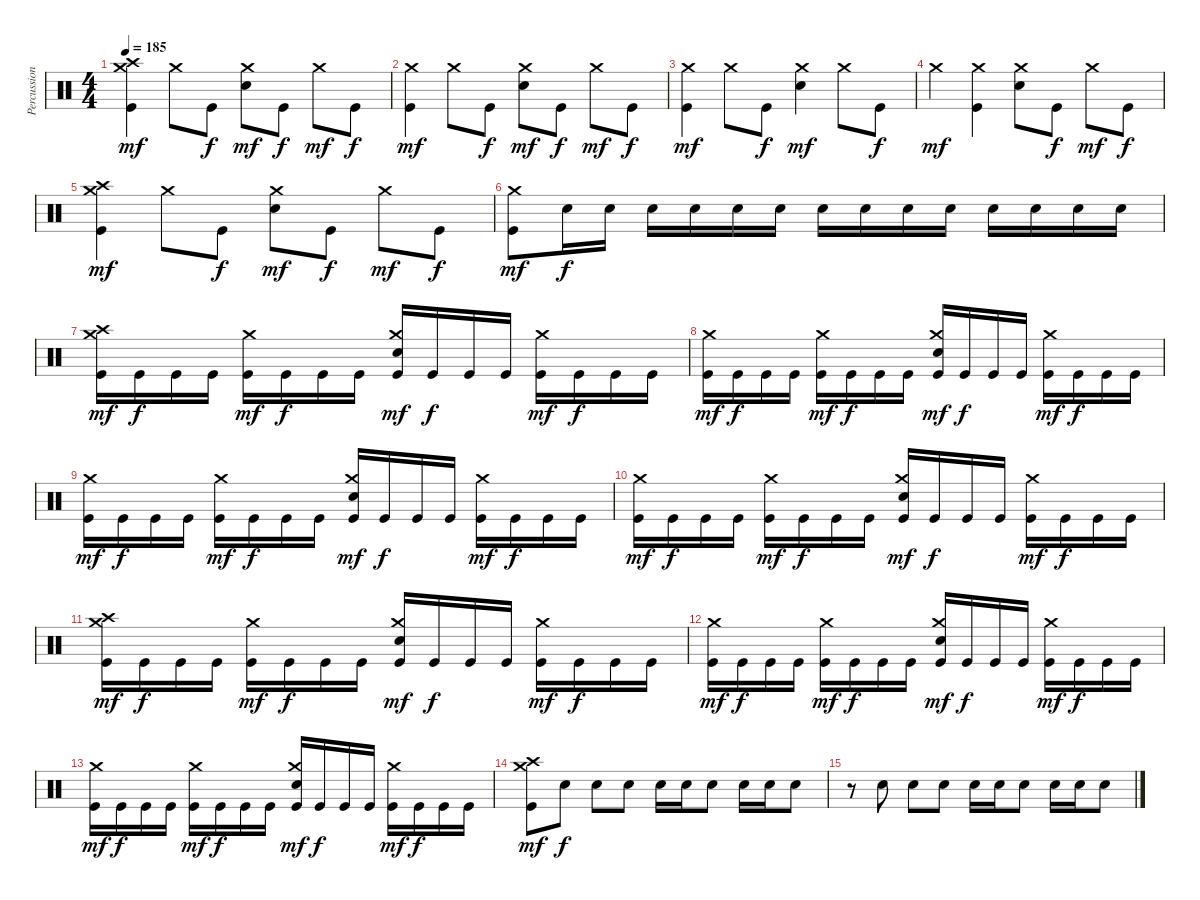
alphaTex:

\track ("Percussions" "Percussion") {instrument percussion}
\staff {score}
\articulation defaults
\ts (4 4)
\tempo 185
\clef neutral
\ks c
("Kick (hit)" "Crash medium (hit)" "Crash high (hit)").4{dy mf} "Crash medium (hit)".8 "Kick (hit)".8{dy f} ("Electric Snare (hit)" "Crash medium (hit)").8{dy mf} "Kick (hit)".8{dy f} "Crash medium (hit)".8{dy mf} "Kick (hit)".8{dy f} |
("Kick (hit)" "Crash medium (hit)").4{dy mf} "Crash medium (hit)".8 "Kick (hit)".8{dy f} ("Electric Snare (hit)" "Crash medium (hit)").8{dy mf} "Kick (hit)".8{dy f} "Crash medium (hit)".8{dy mf} "Kick (hit)".8{dy f} |
("Kick (hit)" "Crash medium (hit)").4{dy mf} "Crash medium (hit)".8 "Kick (hit)".8{dy f} ("Electric Snare (hit)" "Crash medium (hit)").4{dy mf} "Crash medium (hit)".8 "Kick (hit)".8{dy f} |
"Crash medium (hit)".4{dy mf} ("Kick (hit)" "Crash medium (hit)").4 ("Electric Snare (hit)" "Crash medium (hit)").8 "Kick (hit)".8{dy f} "Crash medium (hit)".8{dy mf} "Kick (hit)".8{dy f} |
("Kick (hit)" "Crash medium (hit)" "Crash high (hit)").4{dy mf} "Crash medium (hit)".8 "Kick (hit)".8{dy f} ("Electric Snare (hit)" "Crash medium (hit)").8{dy mf} "Kick (hit)".8{dy f} "Crash medium (hit)".8{dy mf} "Kick (hit)".8{dy f} |
("Kick (hit)" "Crash medium (hit)").8{dy mf} "Electric Snare (hit)".16{dy f} "Electric Snare (hit)".16 "Electric Snare (hit)".16 "Electric Snare (hit)".16 "Electric Snare (hit)".16 "Electric Snare (hit)".16 "Electric Snare (hit)".16 "Electric Snare (hit)".16 "Electric Snare (hit)".16 "Electric Snare (hit)".16 "Electric Snare (hit)".16 "Electric Snare (hit)".16 "Electric Snare (hit)".16 "Electric Snare (hit)".16 |
("Kick (hit)" "Crash medium (hit)" "Crash high (hit)").16{dy mf} "Kick (hit)".16{dy f} "Kick (hit)".16 "Kick (hit)".16 ("Kick (hit)" "Crash medium (hit)").16{dy mf} "Kick (hit)".16{dy f} "Kick (hit)".16 "Kick (hit)".16 ("Kick (hit)" "Electric Snare (hit)" "Crash medium (hit)").16{dy mf} "Kick (hit)".16{dy f} "Kick (hit)".16 "Kick (hit)".16 ("Kick (hit)" "Crash medium (hit)").16{dy mf} "Kick (hit)".16{dy f} "Kick (hit)".16 "Kick (hit)".16 |
("Kick (hit)" "Crash medium (hit)").16{dy mf} "Kick (hit)".16{dy f} "Kick (hit)".16 "Kick (hit)".16 ("Kick (hit)" "Crash medium (hit)").16{dy mf} "Kick (hit)".16{dy f} "Kick (hit)".16 "Kick (hit)".16 ("Kick (hit)" "Electric Snare (hit)" "Crash medium (hit)").16{dy mf} "Kick (hit)".16{dy f} "Kick (hit)".16 "Kick (hit)".16 ("Kick (hit)" "Crash medium (hit)").16{dy mf} "Kick (hit)".16{dy f} "Kick (hit)".16 "Kick (hit)".16 |
("Kick (hit)" "Crash medium (hit)").16{dy mf} "Kick (hit)".16{dy f} "Kick (hit)".16 "Kick (hit)".16 ("Kick (hit)" "Crash medium (hit)").16{dy mf} "Kick (hit)".16{dy f} "Kick (hit)".16 "Kick (hit)".16 ("Kick (hit)" "Electric Snare (hit)" "Crash medium (hit)").16{dy mf} "Kick (hit)".16{dy f} "Kick (hit)".16 "Kick (hit)".16 ("Kick (hit)" "Crash medium (hit)").16{dy mf} "Kick (hit)".16{dy f} "Kick (hit)".16 "Kick (hit)".16 |
("Kick (hit)" "Crash medium (hit)").16{dy mf} "Kick (hit)".16{dy f} "Kick (hit)".16 "Kick (hit)".16 ("Kick (hit)" "Crash medium (hit)").16{dy mf} "Kick (hit)".16{dy f} "Kick (hit)".16 "Kick (hit)".16 ("Kick (hit)" "Electric Snare (hit)" "Crash medium (hit)").16{dy mf} "Kick (hit)".16{dy f} "Kick (hit)".16 "Kick (hit)".16 ("Kick (hit)" "Crash medium (hit)").16{dy mf} "Kick (hit)".16{dy f} "Kick (hit)".16 "Kick (hit)".16 |
("Kick (hit)" "Crash medium (hit)" "Crash high (hit)").16{dy mf} "Kick (hit)".16{dy f} "Kick (hit)".16 "Kick (hit)".16 ("Kick (hit)" "Crash medium (hit)").16{dy mf} "Kick (hit)".16{dy f} "Kick (hit)".16 "Kick (hit)".16 ("Kick (hit)" "Electric Snare (hit)" "Crash medium (hit)").16{dy mf} "Kick (hit)".16{dy f} "Kick (hit)".16 "Kick (hit)".16 ("Kick (hit)" "Crash medium (hit)").16{dy mf} "Kick (hit)".16{dy f} "Kick (hit)".16 "Kick (hit)".16 |
("Kick (hit)" "Crash medium (hit)").16{dy mf} "Kick (hit)".16{dy f} "Kick (hit)".16 "Kick (hit)".16 ("Kick (hit)" "Crash medium (hit)").16{dy mf} "Kick (hit)".16{dy f} "Kick (hit)".16 "Kick (hit)".16 ("Kick (hit)" "Electric Snare (hit)" "Crash medium (hit)").16{dy mf} "Kick (hit)".16{dy f} "Kick (hit)".16 "Kick (hit)".16 ("Kick (hit)" "Crash medium (hit)").16{dy mf} "Kick (hit)".16{dy f} "Kick (hit)".16 "Kick (hit)".16 |
("Kick (hit)" "Crash medium (hit)").16{dy mf} "Kick (hit)".16{dy f} "Kick (hit)".16 "Kick (hit)".16 ("Kick (hit)" "Crash medium (hit)").16{dy mf} "Kick (hit)".16{dy f} "Kick (hit)".16 "Kick (hit)".16 ("Kick (hit)" "Electric Snare (hit)" "Crash medium (hit)").16{dy mf} "Kick (hit)".16{dy f} "Kick (hit)".16 "Kick (hit)".16 ("Kick (hit)" "Crash medium (hit)").16{dy mf} "Kick (hit)".16{dy f} "Kick (hit)".16 "Kick (hit)".16 |
("Kick (hit)" "Crash medium (hit)" "Crash high (hit)").8{dy mf} "Electric Snare (hit)".8{dy f} "Electric Snare (hit)".8 "Electric Snare (hit)".8 "Electric Snare (hit)".16 "Electric Snare (hit)".16 "Electric Snare (hit)".8 "Electric Snare (hit)".16 "Electric Snare (hit)".16 "Electric Snare (hit)".8 |
r.8 "Electric Snare (hit)".8 "Electric Snare (hit)".8 "Electric Snare (hit)".8 "Electric Snare (hit)".16 "Electric Snare (hit)".16 "Electric Snare (hit)".8 "Electric Snare (hit)".16 "Electric Snare (hit)".16 "Electric Snare (hit)".8
